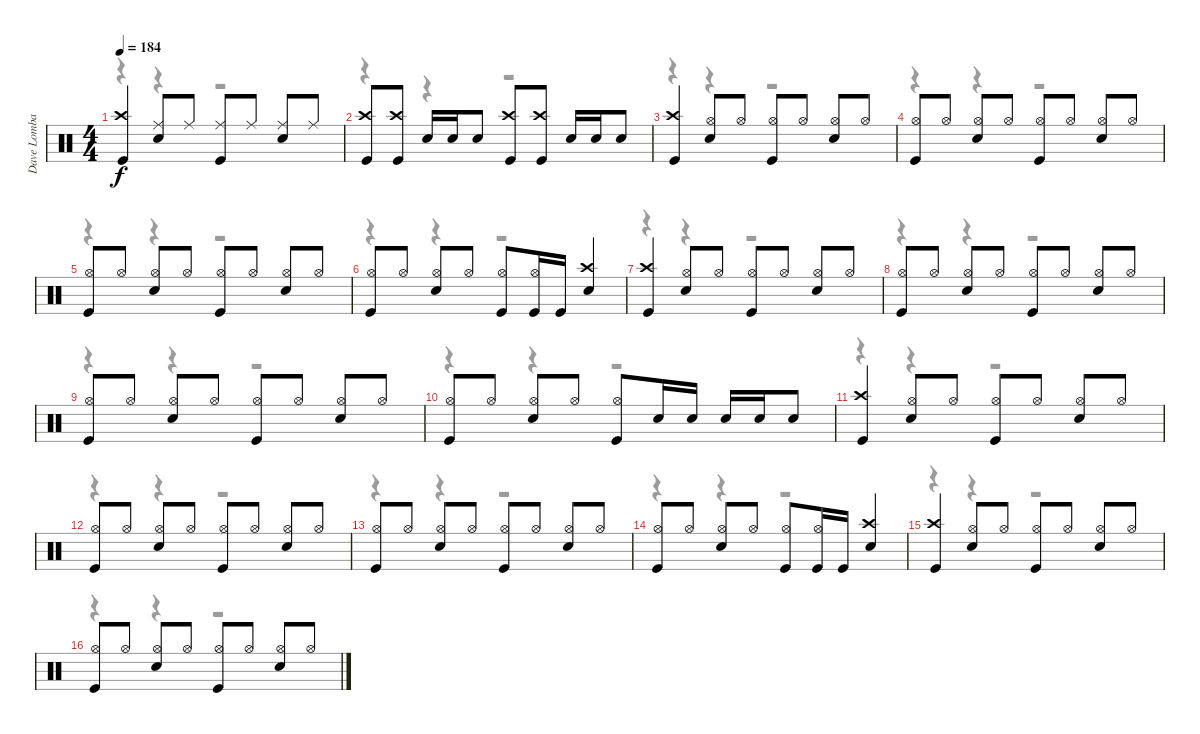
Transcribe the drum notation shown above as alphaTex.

\track ("Dave Lombardo" "Dave Lomba") {instrument percussion}
\staff {score}
\articulation defaults
\voice
\ts (4 4)
\tempo 184
\clef neutral
\ks c
("Crash high (hit)" "Kick (hit)").4{dy f} ("Ride (middle)" "Snare (hit) 2").8 "Ride (middle)".8 ("Ride (middle)" "Kick (hit)").8 "Ride (middle)".8 ("Ride (middle)" "Snare (hit) 2").8 "Ride (middle)".8 |
("Crash high (hit)" "Kick (hit)").8 ("Crash high (hit)" "Kick (hit)").8 "Snare (hit) 2".16 "Snare (hit) 2".16 "Snare (hit) 2".8 ("Crash high (hit)" "Kick (hit)").8 ("Crash high (hit)" "Kick (hit)").8 "Snare (hit) 2".16 "Snare (hit) 2".16 "Snare (hit) 2".8 |
("Crash high (hit)" "Kick (hit)").4 ("Hi-Hat (open)" "Snare (hit) 2").8 "Hi-Hat (open)".8 ("Hi-Hat (open)" "Kick (hit)").8 "Hi-Hat (open)".8 ("Hi-Hat (open)" "Snare (hit) 2").8 "Hi-Hat (open)".8 |
("Hi-Hat (open)" "Kick (hit)").8 "Hi-Hat (open)".8 ("Hi-Hat (open)" "Snare (hit) 2").8 "Hi-Hat (open)".8 ("Hi-Hat (open)" "Kick (hit)").8 "Hi-Hat (open)".8 ("Hi-Hat (open)" "Snare (hit) 2").8 "Hi-Hat (open)".8 |
("Hi-Hat (open)" "Kick (hit)").8 "Hi-Hat (open)".8 ("Hi-Hat (open)" "Snare (hit) 2").8 "Hi-Hat (open)".8 ("Hi-Hat (open)" "Kick (hit)").8 "Hi-Hat (open)".8 ("Hi-Hat (open)" "Snare (hit) 2").8 "Hi-Hat (open)".8 |
("Hi-Hat (open)" "Kick (hit)").8 "Hi-Hat (open)".8 ("Hi-Hat (open)" "Snare (hit) 2").8 "Hi-Hat (open)".8 ("Hi-Hat (open)" "Kick (hit)").8 ("Hi-Hat (open)" "Kick (hit)").16 "Kick (hit)".16 ("Crash high (hit)" "Snare (hit) 2").4 |
("Crash high (hit)" "Kick (hit)").4 ("Hi-Hat (open)" "Snare (hit) 2").8 "Hi-Hat (open)".8 ("Hi-Hat (open)" "Kick (hit)").8 "Hi-Hat (open)".8 ("Hi-Hat (open)" "Snare (hit) 2").8 "Hi-Hat (open)".8 |
("Hi-Hat (open)" "Kick (hit)").8 "Hi-Hat (open)".8 ("Hi-Hat (open)" "Snare (hit) 2").8 "Hi-Hat (open)".8 ("Hi-Hat (open)" "Kick (hit)").8 "Hi-Hat (open)".8 ("Hi-Hat (open)" "Snare (hit) 2").8 "Hi-Hat (open)".8 |
("Hi-Hat (open)" "Kick (hit)").8 "Hi-Hat (open)".8 ("Hi-Hat (open)" "Snare (hit) 2").8 "Hi-Hat (open)".8 ("Hi-Hat (open)" "Kick (hit)").8 "Hi-Hat (open)".8 ("Hi-Hat (open)" "Snare (hit) 2").8 "Hi-Hat (open)".8 |
("Hi-Hat (open)" "Kick (hit)").8 "Hi-Hat (open)".8 ("Hi-Hat (open)" "Snare (hit) 2").8 "Hi-Hat (open)".8 ("Hi-Hat (open)" "Kick (hit)").8 "Snare (hit) 2".16 "Snare (hit) 2".16 "Snare (hit) 2".16 "Snare (hit) 2".16 "Snare (hit) 2".8 |
("Crash high (hit)" "Kick (hit)").4 ("Hi-Hat (open)" "Snare (hit) 2").8 "Hi-Hat (open)".8 ("Hi-Hat (open)" "Kick (hit)").8 "Hi-Hat (open)".8 ("Hi-Hat (open)" "Snare (hit) 2").8 "Hi-Hat (open)".8 |
("Hi-Hat (open)" "Kick (hit)").8 "Hi-Hat (open)".8 ("Hi-Hat (open)" "Snare (hit) 2").8 "Hi-Hat (open)".8 ("Hi-Hat (open)" "Kick (hit)").8 "Hi-Hat (open)".8 ("Hi-Hat (open)" "Snare (hit) 2").8 "Hi-Hat (open)".8 |
("Hi-Hat (open)" "Kick (hit)").8 "Hi-Hat (open)".8 ("Hi-Hat (open)" "Snare (hit) 2").8 "Hi-Hat (open)".8 ("Hi-Hat (open)" "Kick (hit)").8 "Hi-Hat (open)".8 ("Hi-Hat (open)" "Snare (hit) 2").8 "Hi-Hat (open)".8 |
("Hi-Hat (open)" "Kick (hit)").8 "Hi-Hat (open)".8 ("Hi-Hat (open)" "Snare (hit) 2").8 "Hi-Hat (open)".8 ("Hi-Hat (open)" "Kick (hit)").8 ("Hi-Hat (open)" "Kick (hit)").16 "Kick (hit)".16 ("Crash high (hit)" "Snare (hit) 2").4 |
("Crash high (hit)" "Kick (hit)").4 ("Hi-Hat (open)" "Snare (hit) 2").8 "Hi-Hat (open)".8 ("Hi-Hat (open)" "Kick (hit)").8 "Hi-Hat (open)".8 ("Hi-Hat (open)" "Snare (hit) 2").8 "Hi-Hat (open)".8 |
("Hi-Hat (open)" "Kick (hit)").8 "Hi-Hat (open)".8 ("Hi-Hat (open)" "Snare (hit) 2").8 "Hi-Hat (open)".8 ("Hi-Hat (open)" "Kick (hit)").8 "Hi-Hat (open)".8 ("Hi-Hat (open)" "Snare (hit) 2").8 "Hi-Hat (open)".8
\voice
\clef neutral
\ottava regular
\simile none
\ks c
r.4{dy f} r.4 r.2 |
r.4 r.4 r.2 |
r.4 r.4 r.2 |
r.4 r.4 r.2 |
r.4 r.4 r.2 |
r.4 r.4 r.2 |
r.4 r.4 r.2 |
r.4 r.4 r.2 |
r.4 r.4 r.2 |
r.4 r.4 r.2 |
r.4 r.4 r.2 |
r.4 r.4 r.2 |
r.4 r.4 r.2 |
r.4 r.4 r.2 |
r.4 r.4 r.2 |
r.4 r.4 r.2
